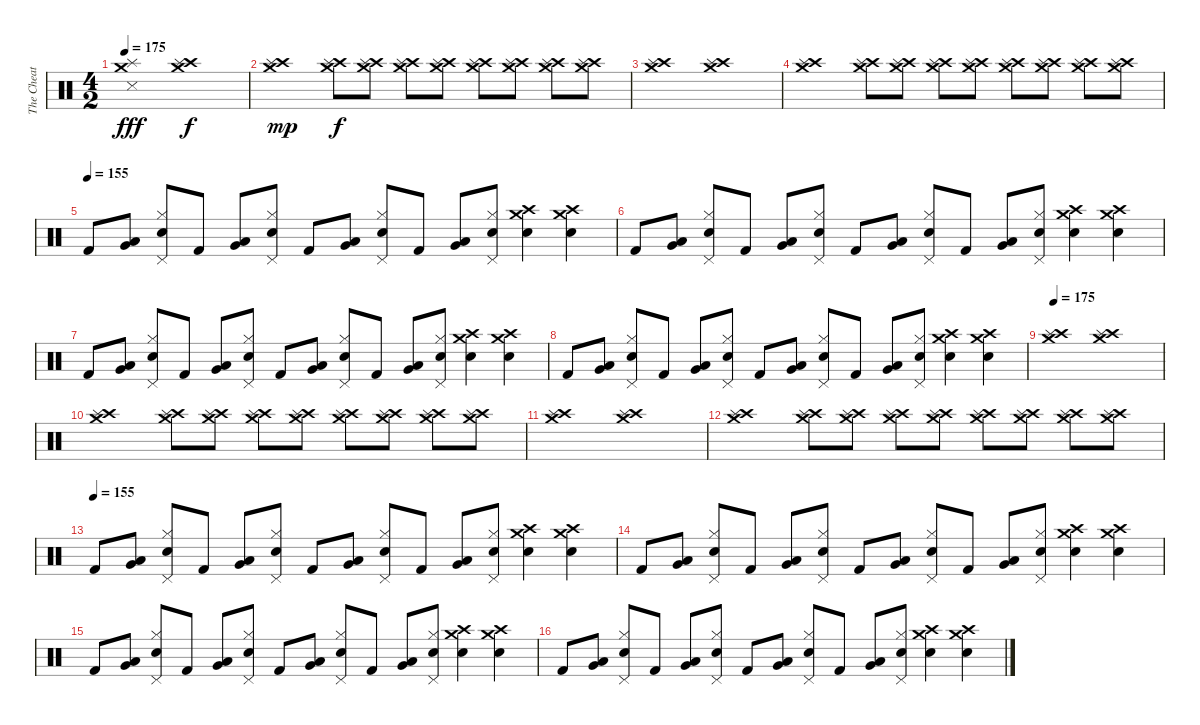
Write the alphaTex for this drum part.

\track ("The Cheat Keyboard Beat" "The Cheat ") {instrument percussion}
\staff {score}
\articulation defaults
\ts (4 2)
\tempo 175
\clef neutral
\ks c
("Snare (side stick) 3" "Splash (hit)" "Crash medium (hit)").1{dy fff} ("Crash high (hit)" "Splash (hit)" "Crash medium (hit)").1{dy f} |
("Crash high (hit)" "Splash (hit)" "Crash medium (hit)").1{dy mp} ("Crash high (hit)" "Splash (hit)" "Crash medium (hit)").8{dy f} ("Crash high (hit)" "Splash (hit)" "Crash medium (hit)").8 ("Crash high (hit)" "Splash (hit)" "Crash medium (hit)").8 ("Crash high (hit)" "Splash (hit)" "Crash medium (hit)").8 ("Crash high (hit)" "Splash (hit)" "Crash medium (hit)").8 ("Crash high (hit)" "Splash (hit)" "Crash medium (hit)").8 ("Crash high (hit)" "Splash (hit)" "Crash medium (hit)").8 ("Crash high (hit)" "Splash (hit)" "Crash medium (hit)").8 |
("Crash high (hit)" "Splash (hit)" "Crash medium (hit)").1 ("Crash high (hit)" "Splash (hit)" "Crash medium (hit)").1 |
("Crash high (hit)" "Splash (hit)" "Crash medium (hit)").1 ("Crash high (hit)" "Splash (hit)" "Crash medium (hit)").8 ("Crash high (hit)" "Splash (hit)" "Crash medium (hit)").8 ("Crash high (hit)" "Splash (hit)" "Crash medium (hit)").8 ("Crash high (hit)" "Splash (hit)" "Crash medium (hit)").8 ("Crash high (hit)" "Splash (hit)" "Crash medium (hit)").8 ("Crash high (hit)" "Splash (hit)" "Crash medium (hit)").8 ("Crash high (hit)" "Splash (hit)" "Crash medium (hit)").8 ("Crash high (hit)" "Splash (hit)" "Crash medium (hit)").8 |
\tempo (155)
"Kick (hit) 2".8 ("Low Floor Tom (hit)" "Very Low Tom (hit)").8 ("Electric Snare (hit)" "Hi-Hat (closed)" "Pedal Hi-Hat (hit)").8 "Kick (hit) 2".8 ("Low Floor Tom (hit)" "Very Low Tom (hit)").8 ("Electric Snare (hit)" "Hi-Hat (closed)" "Pedal Hi-Hat (hit)").8 "Kick (hit) 2".8 ("Low Floor Tom (hit)" "Very Low Tom (hit)").8 ("Electric Snare (hit)" "Hi-Hat (closed)" "Pedal Hi-Hat (hit)").8 "Kick (hit) 2".8 ("Low Floor Tom (hit)" "Very Low Tom (hit)").8 ("Electric Snare (hit)" "Hi-Hat (closed)" "Pedal Hi-Hat (hit)").8 ("Crash high (hit)" "Electric Snare (hit)" "Crash medium (hit)").4 ("Crash high (hit)" "Electric Snare (hit)" "Crash medium (hit)").4 |
"Kick (hit) 2".8 ("Low Floor Tom (hit)" "Very Low Tom (hit)").8 ("Electric Snare (hit)" "Hi-Hat (closed)" "Pedal Hi-Hat (hit)").8 "Kick (hit) 2".8 ("Low Floor Tom (hit)" "Very Low Tom (hit)").8 ("Electric Snare (hit)" "Hi-Hat (closed)" "Pedal Hi-Hat (hit)").8 "Kick (hit) 2".8 ("Low Floor Tom (hit)" "Very Low Tom (hit)").8 ("Electric Snare (hit)" "Hi-Hat (closed)" "Pedal Hi-Hat (hit)").8 "Kick (hit) 2".8 ("Low Floor Tom (hit)" "Very Low Tom (hit)").8 ("Electric Snare (hit)" "Hi-Hat (closed)" "Pedal Hi-Hat (hit)").8 ("Crash high (hit)" "Electric Snare (hit)" "Crash medium (hit)").4 ("Crash high (hit)" "Electric Snare (hit)" "Crash medium (hit)").4 |
"Kick (hit) 2".8 ("Low Floor Tom (hit)" "Very Low Tom (hit)").8 ("Electric Snare (hit)" "Hi-Hat (closed)" "Pedal Hi-Hat (hit)").8 "Kick (hit) 2".8 ("Low Floor Tom (hit)" "Very Low Tom (hit)").8 ("Electric Snare (hit)" "Hi-Hat (closed)" "Pedal Hi-Hat (hit)").8 "Kick (hit) 2".8 ("Low Floor Tom (hit)" "Very Low Tom (hit)").8 ("Electric Snare (hit)" "Hi-Hat (closed)" "Pedal Hi-Hat (hit)").8 "Kick (hit) 2".8 ("Low Floor Tom (hit)" "Very Low Tom (hit)").8 ("Electric Snare (hit)" "Hi-Hat (closed)" "Pedal Hi-Hat (hit)").8 ("Crash high (hit)" "Electric Snare (hit)" "Crash medium (hit)").4 ("Crash high (hit)" "Electric Snare (hit)" "Crash medium (hit)").4 |
"Kick (hit) 2".8 ("Low Floor Tom (hit)" "Very Low Tom (hit)").8 ("Electric Snare (hit)" "Hi-Hat (closed)" "Pedal Hi-Hat (hit)").8 "Kick (hit) 2".8 ("Low Floor Tom (hit)" "Very Low Tom (hit)").8 ("Electric Snare (hit)" "Hi-Hat (closed)" "Pedal Hi-Hat (hit)").8 "Kick (hit) 2".8 ("Low Floor Tom (hit)" "Very Low Tom (hit)").8 ("Electric Snare (hit)" "Hi-Hat (closed)" "Pedal Hi-Hat (hit)").8 "Kick (hit) 2".8 ("Low Floor Tom (hit)" "Very Low Tom (hit)").8 ("Electric Snare (hit)" "Hi-Hat (closed)" "Pedal Hi-Hat (hit)").8 ("Crash high (hit)" "Electric Snare (hit)" "Crash medium (hit)").4 ("Crash high (hit)" "Electric Snare (hit)" "Crash medium (hit)").4 |
\tempo 175
("Crash high (hit)" "Splash (hit)" "Crash medium (hit)").1 ("Crash high (hit)" "Splash (hit)" "Crash medium (hit)").1 |
("Crash high (hit)" "Splash (hit)" "Crash medium (hit)").1 ("Crash high (hit)" "Splash (hit)" "Crash medium (hit)").8 ("Crash high (hit)" "Splash (hit)" "Crash medium (hit)").8 ("Crash high (hit)" "Splash (hit)" "Crash medium (hit)").8 ("Crash high (hit)" "Splash (hit)" "Crash medium (hit)").8 ("Crash high (hit)" "Splash (hit)" "Crash medium (hit)").8 ("Crash high (hit)" "Splash (hit)" "Crash medium (hit)").8 ("Crash high (hit)" "Splash (hit)" "Crash medium (hit)").8 ("Crash high (hit)" "Splash (hit)" "Crash medium (hit)").8 |
("Crash high (hit)" "Splash (hit)" "Crash medium (hit)").1 ("Crash high (hit)" "Splash (hit)" "Crash medium (hit)").1 |
("Crash high (hit)" "Splash (hit)" "Crash medium (hit)").1 ("Crash high (hit)" "Splash (hit)" "Crash medium (hit)").8 ("Crash high (hit)" "Splash (hit)" "Crash medium (hit)").8 ("Crash high (hit)" "Splash (hit)" "Crash medium (hit)").8 ("Crash high (hit)" "Splash (hit)" "Crash medium (hit)").8 ("Crash high (hit)" "Splash (hit)" "Crash medium (hit)").8 ("Crash high (hit)" "Splash (hit)" "Crash medium (hit)").8 ("Crash high (hit)" "Splash (hit)" "Crash medium (hit)").8 ("Crash high (hit)" "Splash (hit)" "Crash medium (hit)").8 |
\tempo (155)
"Kick (hit) 2".8 ("Low Floor Tom (hit)" "Very Low Tom (hit)").8 ("Electric Snare (hit)" "Hi-Hat (closed)" "Pedal Hi-Hat (hit)").8 "Kick (hit) 2".8 ("Low Floor Tom (hit)" "Very Low Tom (hit)").8 ("Electric Snare (hit)" "Hi-Hat (closed)" "Pedal Hi-Hat (hit)").8 "Kick (hit) 2".8 ("Low Floor Tom (hit)" "Very Low Tom (hit)").8 ("Electric Snare (hit)" "Hi-Hat (closed)" "Pedal Hi-Hat (hit)").8 "Kick (hit) 2".8 ("Low Floor Tom (hit)" "Very Low Tom (hit)").8 ("Electric Snare (hit)" "Hi-Hat (closed)" "Pedal Hi-Hat (hit)").8 ("Crash high (hit)" "Electric Snare (hit)" "Crash medium (hit)").4 ("Crash high (hit)" "Electric Snare (hit)" "Crash medium (hit)").4 |
"Kick (hit) 2".8 ("Low Floor Tom (hit)" "Very Low Tom (hit)").8 ("Electric Snare (hit)" "Hi-Hat (closed)" "Pedal Hi-Hat (hit)").8 "Kick (hit) 2".8 ("Low Floor Tom (hit)" "Very Low Tom (hit)").8 ("Electric Snare (hit)" "Hi-Hat (closed)" "Pedal Hi-Hat (hit)").8 "Kick (hit) 2".8 ("Low Floor Tom (hit)" "Very Low Tom (hit)").8 ("Electric Snare (hit)" "Hi-Hat (closed)" "Pedal Hi-Hat (hit)").8 "Kick (hit) 2".8 ("Low Floor Tom (hit)" "Very Low Tom (hit)").8 ("Electric Snare (hit)" "Hi-Hat (closed)" "Pedal Hi-Hat (hit)").8 ("Crash high (hit)" "Electric Snare (hit)" "Crash medium (hit)").4 ("Crash high (hit)" "Electric Snare (hit)" "Crash medium (hit)").4 |
"Kick (hit) 2".8 ("Low Floor Tom (hit)" "Very Low Tom (hit)").8 ("Electric Snare (hit)" "Hi-Hat (closed)" "Pedal Hi-Hat (hit)").8 "Kick (hit) 2".8 ("Low Floor Tom (hit)" "Very Low Tom (hit)").8 ("Electric Snare (hit)" "Hi-Hat (closed)" "Pedal Hi-Hat (hit)").8 "Kick (hit) 2".8 ("Low Floor Tom (hit)" "Very Low Tom (hit)").8 ("Electric Snare (hit)" "Hi-Hat (closed)" "Pedal Hi-Hat (hit)").8 "Kick (hit) 2".8 ("Low Floor Tom (hit)" "Very Low Tom (hit)").8 ("Electric Snare (hit)" "Hi-Hat (closed)" "Pedal Hi-Hat (hit)").8 ("Crash high (hit)" "Electric Snare (hit)" "Crash medium (hit)").4 ("Crash high (hit)" "Electric Snare (hit)" "Crash medium (hit)").4 |
"Kick (hit) 2".8 ("Low Floor Tom (hit)" "Very Low Tom (hit)").8 ("Electric Snare (hit)" "Hi-Hat (closed)" "Pedal Hi-Hat (hit)").8 "Kick (hit) 2".8 ("Low Floor Tom (hit)" "Very Low Tom (hit)").8 ("Electric Snare (hit)" "Hi-Hat (closed)" "Pedal Hi-Hat (hit)").8 "Kick (hit) 2".8 ("Low Floor Tom (hit)" "Very Low Tom (hit)").8 ("Electric Snare (hit)" "Hi-Hat (closed)" "Pedal Hi-Hat (hit)").8 "Kick (hit) 2".8 ("Low Floor Tom (hit)" "Very Low Tom (hit)").8 ("Electric Snare (hit)" "Hi-Hat (closed)" "Pedal Hi-Hat (hit)").8 ("Crash high (hit)" "Electric Snare (hit)" "Crash medium (hit)").4 ("Crash high (hit)" "Electric Snare (hit)" "Crash medium (hit)").4
